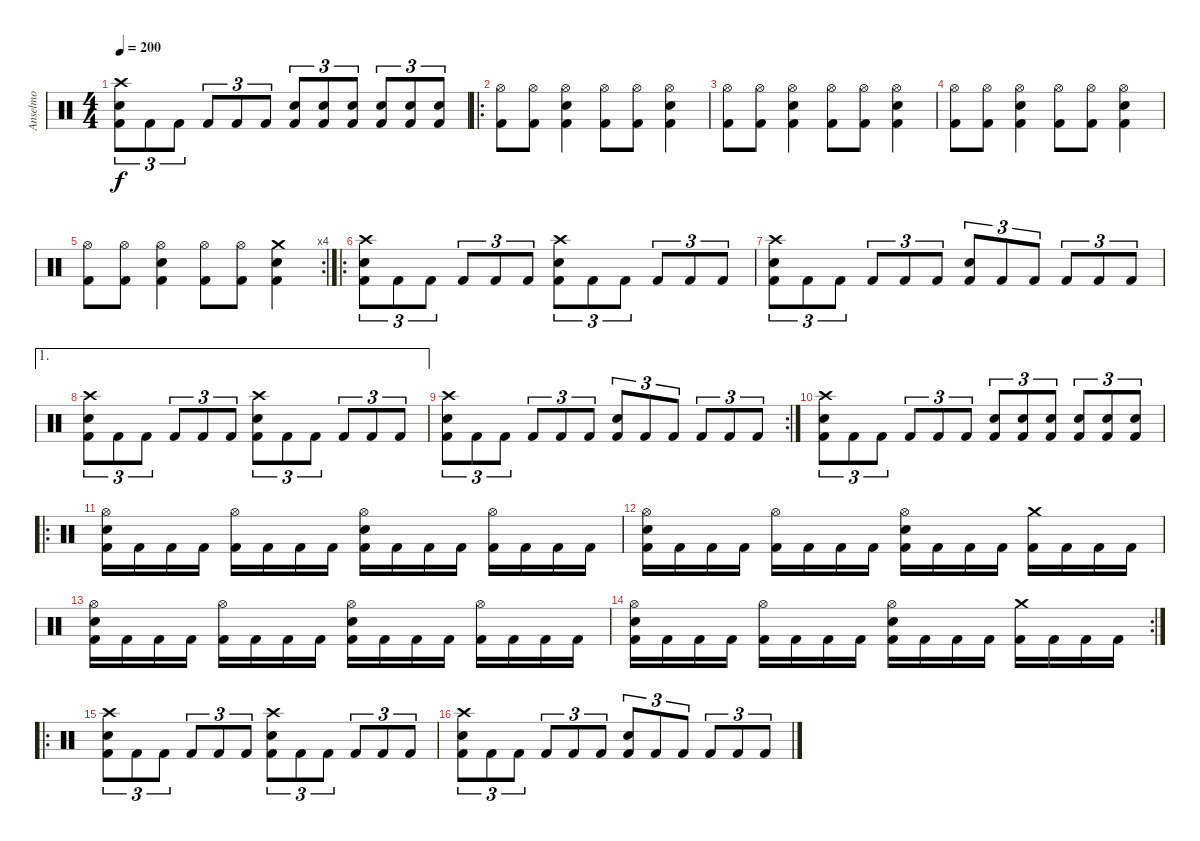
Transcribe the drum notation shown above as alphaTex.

\track ("Anselmo" "Anselmo") {instrument percussion}
\staff {score}
\articulation defaults
\ts (4 4)
\tempo 200
\clef neutral
\ks c
("Crash high (hit)" "Electric Snare (hit)" "Kick (hit) 2").8{tu (3 2) dy f} "Kick (hit) 2".8{tu (3 2)} "Kick (hit) 2".8{tu (3 2)} "Kick (hit) 2".8{tu (3 2)} "Kick (hit) 2".8{tu (3 2)} "Kick (hit) 2".8{tu (3 2)} ("Electric Snare (hit)" "Kick (hit) 2").8{tu (3 2)} ("Electric Snare (hit)" "Kick (hit) 2").8{tu (3 2)} ("Electric Snare (hit)" "Kick (hit) 2").8{tu (3 2)} ("Electric Snare (hit)" "Kick (hit) 2").8{tu (3 2)} ("Electric Snare (hit)" "Kick (hit) 2").8{tu (3 2)} ("Electric Snare (hit)" "Kick (hit) 2").8{tu (3 2)} |
\ro
("Hi-Hat (open)" "Kick (hit) 2").8 ("Hi-Hat (open)" "Kick (hit) 2").8 ("Hi-Hat (open)" "Kick (hit) 2" "Electric Snare (hit)").4 ("Hi-Hat (open)" "Kick (hit) 2").8 ("Hi-Hat (open)" "Kick (hit) 2").8 ("Hi-Hat (open)" "Kick (hit) 2" "Electric Snare (hit)").4 |
("Hi-Hat (open)" "Kick (hit) 2").8 ("Hi-Hat (open)" "Kick (hit) 2").8 ("Hi-Hat (open)" "Kick (hit) 2" "Electric Snare (hit)").4 ("Hi-Hat (open)" "Kick (hit) 2").8 ("Hi-Hat (open)" "Kick (hit) 2").8 ("Hi-Hat (open)" "Kick (hit) 2" "Electric Snare (hit)").4 |
("Hi-Hat (open)" "Kick (hit) 2").8 ("Hi-Hat (open)" "Kick (hit) 2").8 ("Hi-Hat (open)" "Kick (hit) 2" "Electric Snare (hit)").4 ("Hi-Hat (open)" "Kick (hit) 2").8 ("Hi-Hat (open)" "Kick (hit) 2").8 ("Hi-Hat (open)" "Kick (hit) 2" "Electric Snare (hit)").4 |
\rc 4
("Hi-Hat (open)" "Kick (hit) 2").8 ("Hi-Hat (open)" "Kick (hit) 2").8 ("Hi-Hat (open)" "Kick (hit) 2" "Electric Snare (hit)").4 ("Hi-Hat (open)" "Kick (hit) 2").8 ("Hi-Hat (open)" "Kick (hit) 2").8 ("Crash medium (hit)" "Kick (hit) 2" "Electric Snare (hit)").4 |
\ro
("Crash high (hit)" "Electric Snare (hit)" "Kick (hit) 2").8{tu (3 2)} "Kick (hit) 2".8{tu (3 2)} "Kick (hit) 2".8{tu (3 2)} "Kick (hit) 2".8{tu (3 2)} "Kick (hit) 2".8{tu (3 2)} "Kick (hit) 2".8{tu (3 2)} ("Crash high (hit)" "Electric Snare (hit)" "Kick (hit) 2").8{tu (3 2)} "Kick (hit) 2".8{tu (3 2)} "Kick (hit) 2".8{tu (3 2)} "Kick (hit) 2".8{tu (3 2)} "Kick (hit) 2".8{tu (3 2)} "Kick (hit) 2".8{tu (3 2)} |
("Crash high (hit)" "Electric Snare (hit)" "Kick (hit) 2").8{tu (3 2)} "Kick (hit) 2".8{tu (3 2)} "Kick (hit) 2".8{tu (3 2)} "Kick (hit) 2".8{tu (3 2)} "Kick (hit) 2".8{tu (3 2)} "Kick (hit) 2".8{tu (3 2)} ("Electric Snare (hit)" "Kick (hit) 2").8{tu (3 2)} "Kick (hit) 2".8{tu (3 2)} "Kick (hit) 2".8{tu (3 2)} "Kick (hit) 2".8{tu (3 2)} "Kick (hit) 2".8{tu (3 2)} "Kick (hit) 2".8{tu (3 2)} |
\ae 1
("Crash high (hit)" "Electric Snare (hit)" "Kick (hit) 2").8{tu (3 2)} "Kick (hit) 2".8{tu (3 2)} "Kick (hit) 2".8{tu (3 2)} "Kick (hit) 2".8{tu (3 2)} "Kick (hit) 2".8{tu (3 2)} "Kick (hit) 2".8{tu (3 2)} ("Crash high (hit)" "Electric Snare (hit)" "Kick (hit) 2").8{tu (3 2)} "Kick (hit) 2".8{tu (3 2)} "Kick (hit) 2".8{tu (3 2)} "Kick (hit) 2".8{tu (3 2)} "Kick (hit) 2".8{tu (3 2)} "Kick (hit) 2".8{tu (3 2)} |
\rc 2
("Crash high (hit)" "Electric Snare (hit)" "Kick (hit) 2").8{tu (3 2)} "Kick (hit) 2".8{tu (3 2)} "Kick (hit) 2".8{tu (3 2)} "Kick (hit) 2".8{tu (3 2)} "Kick (hit) 2".8{tu (3 2)} "Kick (hit) 2".8{tu (3 2)} ("Electric Snare (hit)" "Kick (hit) 2").8{tu (3 2)} "Kick (hit) 2".8{tu (3 2)} "Kick (hit) 2".8{tu (3 2)} "Kick (hit) 2".8{tu (3 2)} "Kick (hit) 2".8{tu (3 2)} "Kick (hit) 2".8{tu (3 2)} |
("Crash high (hit)" "Electric Snare (hit)" "Kick (hit) 2").8{tu (3 2)} "Kick (hit) 2".8{tu (3 2)} "Kick (hit) 2".8{tu (3 2)} "Kick (hit) 2".8{tu (3 2)} "Kick (hit) 2".8{tu (3 2)} "Kick (hit) 2".8{tu (3 2)} ("Electric Snare (hit)" "Kick (hit) 2").8{tu (3 2)} ("Electric Snare (hit)" "Kick (hit) 2").8{tu (3 2)} ("Electric Snare (hit)" "Kick (hit) 2").8{tu (3 2)} ("Electric Snare (hit)" "Kick (hit) 2").8{tu (3 2)} ("Electric Snare (hit)" "Kick (hit) 2").8{tu (3 2)} ("Electric Snare (hit)" "Kick (hit) 2").8{tu (3 2)} |
\ro
("Hi-Hat (open)" "Electric Snare (hit)" "Kick (hit) 2").16 "Kick (hit) 2".16 "Kick (hit) 2".16 "Kick (hit) 2".16 ("Hi-Hat (open)" "Kick (hit) 2").16 "Kick (hit) 2".16 "Kick (hit) 2".16 "Kick (hit) 2".16 ("Hi-Hat (open)" "Electric Snare (hit)" "Kick (hit) 2").16 "Kick (hit) 2".16 "Kick (hit) 2".16 "Kick (hit) 2".16 ("Hi-Hat (open)" "Kick (hit) 2").16 "Kick (hit) 2".16 "Kick (hit) 2".16 "Kick (hit) 2".16 |
("Hi-Hat (open)" "Electric Snare (hit)" "Kick (hit) 2").16 "Kick (hit) 2".16 "Kick (hit) 2".16 "Kick (hit) 2".16 ("Hi-Hat (open)" "Kick (hit) 2").16 "Kick (hit) 2".16 "Kick (hit) 2".16 "Kick (hit) 2".16 ("Hi-Hat (open)" "Electric Snare (hit)" "Kick (hit) 2").16 "Kick (hit) 2".16 "Kick (hit) 2".16 "Kick (hit) 2".16 ("Crash medium (hit)" "Kick (hit) 2").16 "Kick (hit) 2".16 "Kick (hit) 2".16 "Kick (hit) 2".16 |
("Hi-Hat (open)" "Electric Snare (hit)" "Kick (hit) 2").16 "Kick (hit) 2".16 "Kick (hit) 2".16 "Kick (hit) 2".16 ("Hi-Hat (open)" "Kick (hit) 2").16 "Kick (hit) 2".16 "Kick (hit) 2".16 "Kick (hit) 2".16 ("Hi-Hat (open)" "Electric Snare (hit)" "Kick (hit) 2").16 "Kick (hit) 2".16 "Kick (hit) 2".16 "Kick (hit) 2".16 ("Hi-Hat (open)" "Kick (hit) 2").16 "Kick (hit) 2".16 "Kick (hit) 2".16 "Kick (hit) 2".16 |
\rc 2
("Hi-Hat (open)" "Electric Snare (hit)" "Kick (hit) 2").16 "Kick (hit) 2".16 "Kick (hit) 2".16 "Kick (hit) 2".16 ("Hi-Hat (open)" "Kick (hit) 2").16 "Kick (hit) 2".16 "Kick (hit) 2".16 "Kick (hit) 2".16 ("Hi-Hat (open)" "Electric Snare (hit)" "Kick (hit) 2").16 "Kick (hit) 2".16 "Kick (hit) 2".16 "Kick (hit) 2".16 ("Crash medium (hit)" "Kick (hit) 2").16 "Kick (hit) 2".16 "Kick (hit) 2".16 "Kick (hit) 2".16 |
\ro
("Crash high (hit)" "Electric Snare (hit)" "Kick (hit) 2").8{tu (3 2)} "Kick (hit) 2".8{tu (3 2)} "Kick (hit) 2".8{tu (3 2)} "Kick (hit) 2".8{tu (3 2)} "Kick (hit) 2".8{tu (3 2)} "Kick (hit) 2".8{tu (3 2)} ("Crash high (hit)" "Electric Snare (hit)" "Kick (hit) 2").8{tu (3 2)} "Kick (hit) 2".8{tu (3 2)} "Kick (hit) 2".8{tu (3 2)} "Kick (hit) 2".8{tu (3 2)} "Kick (hit) 2".8{tu (3 2)} "Kick (hit) 2".8{tu (3 2)} |
("Crash high (hit)" "Electric Snare (hit)" "Kick (hit) 2").8{tu (3 2)} "Kick (hit) 2".8{tu (3 2)} "Kick (hit) 2".8{tu (3 2)} "Kick (hit) 2".8{tu (3 2)} "Kick (hit) 2".8{tu (3 2)} "Kick (hit) 2".8{tu (3 2)} ("Electric Snare (hit)" "Kick (hit) 2").8{tu (3 2)} "Kick (hit) 2".8{tu (3 2)} "Kick (hit) 2".8{tu (3 2)} "Kick (hit) 2".8{tu (3 2)} "Kick (hit) 2".8{tu (3 2)} "Kick (hit) 2".8{tu (3 2)}
